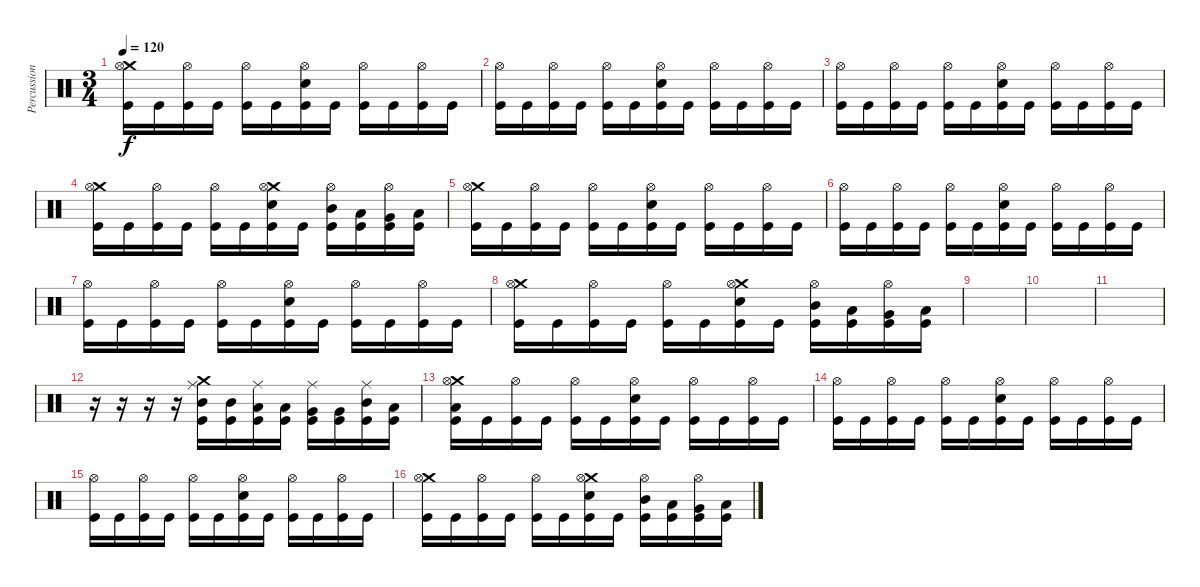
\track ("Percussion" "Percussion") {instrument percussion}
\staff {score}
\articulation defaults
\ts (3 4)
\tempo 120
\clef neutral
\ks c
("Crash medium (hit)" "Hi-Hat (open)" "Kick (hit)").16{dy f} "Kick (hit)".16 ("Hi-Hat (open)" "Kick (hit)").16 "Kick (hit)".16 ("Hi-Hat (open)" "Kick (hit)").16 "Kick (hit)".16 ("Hi-Hat (open)" "Electric Snare (hit)" "Kick (hit)").16 "Kick (hit)".16 ("Hi-Hat (open)" "Kick (hit)").16 "Kick (hit)".16 ("Hi-Hat (open)" "Kick (hit)").16 "Kick (hit)".16 |
("Hi-Hat (open)" "Kick (hit)").16 "Kick (hit)".16 ("Hi-Hat (open)" "Kick (hit)").16 "Kick (hit)".16 ("Hi-Hat (open)" "Kick (hit)").16 "Kick (hit)".16 ("Hi-Hat (open)" "Electric Snare (hit)" "Kick (hit)").16 "Kick (hit)".16 ("Hi-Hat (open)" "Kick (hit)").16 "Kick (hit)".16 ("Hi-Hat (open)" "Kick (hit)").16 "Kick (hit)".16 |
("Hi-Hat (open)" "Kick (hit)").16 "Kick (hit)".16 ("Hi-Hat (open)" "Kick (hit)").16 "Kick (hit)".16 ("Hi-Hat (open)" "Kick (hit)").16 "Kick (hit)".16 ("Hi-Hat (open)" "Electric Snare (hit)" "Kick (hit)").16 "Kick (hit)".16 ("Hi-Hat (open)" "Kick (hit)").16 "Kick (hit)".16 ("Hi-Hat (open)" "Kick (hit)").16 "Kick (hit)".16 |
("Crash medium (hit)" "Hi-Hat (open)" "Kick (hit)").16 "Kick (hit)".16 ("Hi-Hat (open)" "Kick (hit)").16 "Kick (hit)".16 ("Hi-Hat (open)" "Kick (hit)").16 "Kick (hit)".16 ("Crash medium (hit)" "Hi-Hat (open)" "Electric Snare (hit)" "Kick (hit)").16 "Kick (hit)".16 ("Mid Tom (hit)" "Hi-Hat (open)" "Kick (hit)").16 ("Low Tom (hit)" "Kick (hit)").16 ("Very Low Tom (hit)" "Hi-Hat (open)" "Kick (hit)").16 ("Low Floor Tom (hit)" "Kick (hit)").16 |
("Crash medium (hit)" "Hi-Hat (open)" "Kick (hit)").16 "Kick (hit)".16 ("Hi-Hat (open)" "Kick (hit)").16 "Kick (hit)".16 ("Hi-Hat (open)" "Kick (hit)").16 "Kick (hit)".16 ("Hi-Hat (open)" "Electric Snare (hit)" "Kick (hit)").16 "Kick (hit)".16 ("Hi-Hat (open)" "Kick (hit)").16 "Kick (hit)".16 ("Hi-Hat (open)" "Kick (hit)").16 "Kick (hit)".16 |
("Hi-Hat (open)" "Kick (hit)").16 "Kick (hit)".16 ("Hi-Hat (open)" "Kick (hit)").16 "Kick (hit)".16 ("Hi-Hat (open)" "Kick (hit)").16 "Kick (hit)".16 ("Hi-Hat (open)" "Electric Snare (hit)" "Kick (hit)").16 "Kick (hit)".16 ("Hi-Hat (open)" "Kick (hit)").16 "Kick (hit)".16 ("Hi-Hat (open)" "Kick (hit)").16 "Kick (hit)".16 |
("Hi-Hat (open)" "Kick (hit)").16 "Kick (hit)".16 ("Hi-Hat (open)" "Kick (hit)").16 "Kick (hit)".16 ("Hi-Hat (open)" "Kick (hit)").16 "Kick (hit)".16 ("Hi-Hat (open)" "Electric Snare (hit)" "Kick (hit)").16 "Kick (hit)".16 ("Hi-Hat (open)" "Kick (hit)").16 "Kick (hit)".16 ("Hi-Hat (open)" "Kick (hit)").16 "Kick (hit)".16 |
("Crash medium (hit)" "Hi-Hat (open)" "Kick (hit)").16 "Kick (hit)".16 ("Hi-Hat (open)" "Kick (hit)").16 "Kick (hit)".16 ("Hi-Hat (open)" "Kick (hit)").16 "Kick (hit)".16 ("Crash medium (hit)" "Hi-Hat (open)" "Electric Snare (hit)" "Kick (hit)").16 "Kick (hit)".16 ("Mid Tom (hit)" "Hi-Hat (open)" "Kick (hit)").16 ("Low Tom (hit)" "Kick (hit)").16 ("Very Low Tom (hit)" "Hi-Hat (open)" "Kick (hit)").16 ("Low Floor Tom (hit)" "Kick (hit)").16 |
|
|
|
r.16 r.16 r.16 r.16 ("Crash medium (hit)" "Mid Tom (hit)" "Ride (middle)" "Kick (hit)").16 ("Mid Tom (hit)" "Kick (hit)").16 ("Low Tom (hit)" "Ride (middle)" "Kick (hit)").16 ("Low Tom (hit)" "Kick (hit)").16 ("Very Low Tom (hit)" "Ride (middle)" "Kick (hit)").16 ("Very Low Tom (hit)" "Kick (hit)").16 ("Mid Tom (hit)" "Ride (middle)" "Kick (hit)").16 ("Low Tom (hit)" "Kick (hit)").16 |
("Crash medium (hit)" "Hi-Hat (open)" "Low Floor Tom (hit)" "Kick (hit)").16 "Kick (hit)".16 ("Hi-Hat (open)" "Kick (hit)").16 "Kick (hit)".16 ("Hi-Hat (open)" "Kick (hit)").16 "Kick (hit)".16 ("Hi-Hat (open)" "Electric Snare (hit)" "Kick (hit)").16 "Kick (hit)".16 ("Hi-Hat (open)" "Kick (hit)").16 "Kick (hit)".16 ("Hi-Hat (open)" "Kick (hit)").16 "Kick (hit)".16 |
("Hi-Hat (open)" "Kick (hit)").16 "Kick (hit)".16 ("Hi-Hat (open)" "Kick (hit)").16 "Kick (hit)".16 ("Hi-Hat (open)" "Kick (hit)").16 "Kick (hit)".16 ("Hi-Hat (open)" "Electric Snare (hit)" "Kick (hit)").16 "Kick (hit)".16 ("Hi-Hat (open)" "Kick (hit)").16 "Kick (hit)".16 ("Hi-Hat (open)" "Kick (hit)").16 "Kick (hit)".16 |
("Hi-Hat (open)" "Kick (hit)").16 "Kick (hit)".16 ("Hi-Hat (open)" "Kick (hit)").16 "Kick (hit)".16 ("Hi-Hat (open)" "Kick (hit)").16 "Kick (hit)".16 ("Hi-Hat (open)" "Electric Snare (hit)" "Kick (hit)").16 "Kick (hit)".16 ("Hi-Hat (open)" "Kick (hit)").16 "Kick (hit)".16 ("Hi-Hat (open)" "Kick (hit)").16 "Kick (hit)".16 |
("Crash medium (hit)" "Hi-Hat (open)" "Kick (hit)").16 "Kick (hit)".16 ("Hi-Hat (open)" "Kick (hit)").16 "Kick (hit)".16 ("Hi-Hat (open)" "Kick (hit)").16 "Kick (hit)".16 ("Crash medium (hit)" "Hi-Hat (open)" "Electric Snare (hit)" "Kick (hit)").16 "Kick (hit)".16 ("Mid Tom (hit)" "Hi-Hat (open)" "Kick (hit)").16 ("Low Tom (hit)" "Kick (hit)").16 ("Very Low Tom (hit)" "Hi-Hat (open)" "Kick (hit)").16 ("Low Floor Tom (hit)" "Kick (hit)").16
